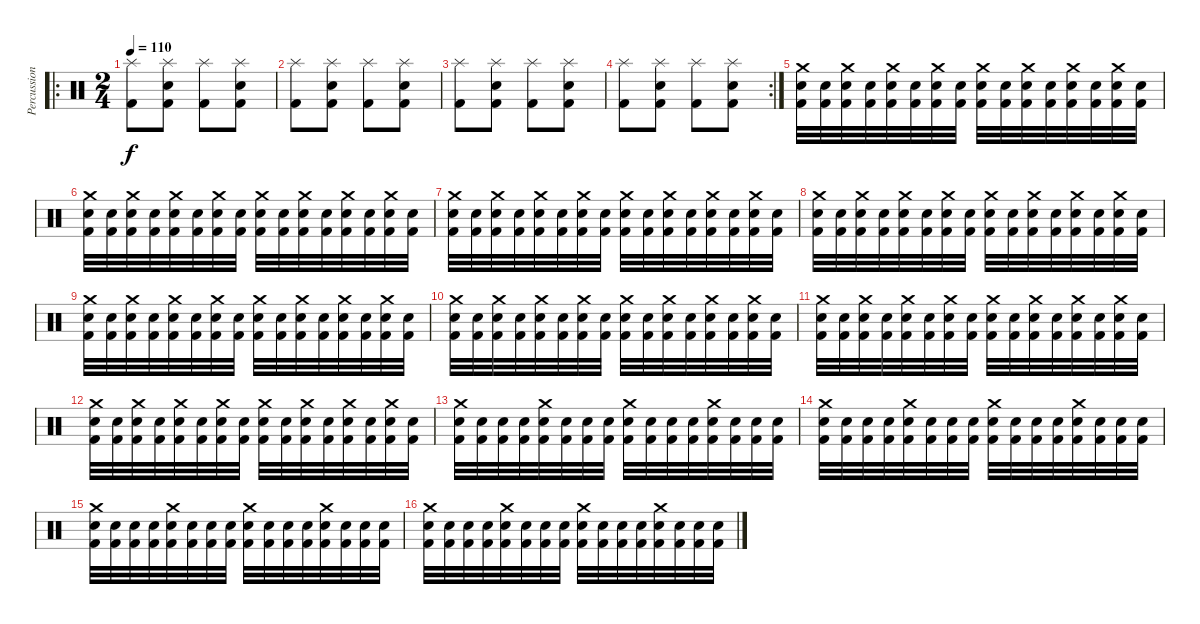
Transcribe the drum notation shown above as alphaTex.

\track ("Percussion" "Percussion") {instrument percussion}
\staff {score}
\articulation defaults
\ro
\ts (2 4)
\tempo 110
\clef neutral
\ks c
("Splash (hit)" "Kick (hit) 2").8{dy f} ("Splash (hit)" "Snare (hit) 2" "Kick (hit) 2").8 ("Splash (hit)" "Kick (hit) 2").8 ("Splash (hit)" "Snare (hit) 2" "Kick (hit) 2").8 |
("Splash (hit)" "Kick (hit) 2").8 ("Splash (hit)" "Snare (hit) 2" "Kick (hit) 2").8 ("Splash (hit)" "Kick (hit) 2").8 ("Splash (hit)" "Snare (hit) 2" "Kick (hit) 2").8 |
("Splash (hit)" "Kick (hit) 2").8 ("Splash (hit)" "Snare (hit) 2" "Kick (hit) 2").8 ("Splash (hit)" "Kick (hit) 2").8 ("Splash (hit)" "Snare (hit) 2" "Kick (hit) 2").8 |
\rc 2
("Splash (hit)" "Kick (hit) 2").8 ("Splash (hit)" "Snare (hit) 2" "Kick (hit) 2").8 ("Splash (hit)" "Kick (hit) 2").8 ("Splash (hit)" "Snare (hit) 2" "Kick (hit) 2").8 |
("Snare (hit) 2" "Crash medium (hit)" "Kick (hit) 2").32 ("Snare (hit) 2" "Kick (hit) 2").32 ("Snare (hit) 2" "Crash medium (hit)" "Kick (hit) 2").32 ("Snare (hit) 2" "Kick (hit) 2").32 ("Snare (hit) 2" "Crash medium (hit)" "Kick (hit) 2").32 ("Snare (hit) 2" "Kick (hit) 2").32 ("Snare (hit) 2" "Crash medium (hit)" "Kick (hit) 2").32 ("Snare (hit) 2" "Kick (hit) 2").32 ("Snare (hit) 2" "Crash medium (hit)" "Kick (hit) 2").32 ("Snare (hit) 2" "Kick (hit) 2").32 ("Snare (hit) 2" "Crash medium (hit)" "Kick (hit) 2").32 ("Snare (hit) 2" "Kick (hit) 2").32 ("Snare (hit) 2" "Crash medium (hit)" "Kick (hit) 2").32 ("Snare (hit) 2" "Kick (hit) 2").32 ("Snare (hit) 2" "Crash medium (hit)" "Kick (hit) 2").32 ("Snare (hit) 2" "Kick (hit) 2").32 |
("Snare (hit) 2" "Crash medium (hit)" "Kick (hit) 2").32 ("Snare (hit) 2" "Kick (hit) 2").32 ("Snare (hit) 2" "Crash medium (hit)" "Kick (hit) 2").32 ("Snare (hit) 2" "Kick (hit) 2").32 ("Snare (hit) 2" "Crash medium (hit)" "Kick (hit) 2").32 ("Snare (hit) 2" "Kick (hit) 2").32 ("Snare (hit) 2" "Crash medium (hit)" "Kick (hit) 2").32 ("Snare (hit) 2" "Kick (hit) 2").32 ("Snare (hit) 2" "Crash medium (hit)" "Kick (hit) 2").32 ("Snare (hit) 2" "Kick (hit) 2").32 ("Snare (hit) 2" "Crash medium (hit)" "Kick (hit) 2").32 ("Snare (hit) 2" "Kick (hit) 2").32 ("Snare (hit) 2" "Crash medium (hit)" "Kick (hit) 2").32 ("Snare (hit) 2" "Kick (hit) 2").32 ("Snare (hit) 2" "Crash medium (hit)" "Kick (hit) 2").32 ("Snare (hit) 2" "Kick (hit) 2").32 |
("Snare (hit) 2" "Crash medium (hit)" "Kick (hit) 2").32 ("Snare (hit) 2" "Kick (hit) 2").32 ("Snare (hit) 2" "Crash medium (hit)" "Kick (hit) 2").32 ("Snare (hit) 2" "Kick (hit) 2").32 ("Snare (hit) 2" "Crash medium (hit)" "Kick (hit) 2").32 ("Snare (hit) 2" "Kick (hit) 2").32 ("Snare (hit) 2" "Crash medium (hit)" "Kick (hit) 2").32 ("Snare (hit) 2" "Kick (hit) 2").32 ("Snare (hit) 2" "Crash medium (hit)" "Kick (hit) 2").32 ("Snare (hit) 2" "Kick (hit) 2").32 ("Snare (hit) 2" "Crash medium (hit)" "Kick (hit) 2").32 ("Snare (hit) 2" "Kick (hit) 2").32 ("Snare (hit) 2" "Crash medium (hit)" "Kick (hit) 2").32 ("Snare (hit) 2" "Kick (hit) 2").32 ("Snare (hit) 2" "Crash medium (hit)" "Kick (hit) 2").32 ("Snare (hit) 2" "Kick (hit) 2").32 |
("Snare (hit) 2" "Crash medium (hit)" "Kick (hit) 2").32 ("Snare (hit) 2" "Kick (hit) 2").32 ("Snare (hit) 2" "Crash medium (hit)" "Kick (hit) 2").32 ("Snare (hit) 2" "Kick (hit) 2").32 ("Snare (hit) 2" "Crash medium (hit)" "Kick (hit) 2").32 ("Snare (hit) 2" "Kick (hit) 2").32 ("Snare (hit) 2" "Crash medium (hit)" "Kick (hit) 2").32 ("Snare (hit) 2" "Kick (hit) 2").32 ("Snare (hit) 2" "Crash medium (hit)" "Kick (hit) 2").32 ("Snare (hit) 2" "Kick (hit) 2").32 ("Snare (hit) 2" "Crash medium (hit)" "Kick (hit) 2").32 ("Snare (hit) 2" "Kick (hit) 2").32 ("Snare (hit) 2" "Crash medium (hit)" "Kick (hit) 2").32 ("Snare (hit) 2" "Kick (hit) 2").32 ("Snare (hit) 2" "Crash medium (hit)" "Kick (hit) 2").32 ("Snare (hit) 2" "Kick (hit) 2").32 |
("Snare (hit) 2" "Crash medium (hit)" "Kick (hit) 2").32 ("Snare (hit) 2" "Kick (hit) 2").32 ("Snare (hit) 2" "Crash medium (hit)" "Kick (hit) 2").32 ("Snare (hit) 2" "Kick (hit) 2").32 ("Snare (hit) 2" "Crash medium (hit)" "Kick (hit) 2").32 ("Snare (hit) 2" "Kick (hit) 2").32 ("Snare (hit) 2" "Crash medium (hit)" "Kick (hit) 2").32 ("Snare (hit) 2" "Kick (hit) 2").32 ("Snare (hit) 2" "Crash medium (hit)" "Kick (hit) 2").32 ("Snare (hit) 2" "Kick (hit) 2").32 ("Snare (hit) 2" "Crash medium (hit)" "Kick (hit) 2").32 ("Snare (hit) 2" "Kick (hit) 2").32 ("Snare (hit) 2" "Crash medium (hit)" "Kick (hit) 2").32 ("Snare (hit) 2" "Kick (hit) 2").32 ("Snare (hit) 2" "Crash medium (hit)" "Kick (hit) 2").32 ("Snare (hit) 2" "Kick (hit) 2").32 |
("Snare (hit) 2" "Crash medium (hit)" "Kick (hit) 2").32 ("Snare (hit) 2" "Kick (hit) 2").32 ("Snare (hit) 2" "Crash medium (hit)" "Kick (hit) 2").32 ("Snare (hit) 2" "Kick (hit) 2").32 ("Snare (hit) 2" "Crash medium (hit)" "Kick (hit) 2").32 ("Snare (hit) 2" "Kick (hit) 2").32 ("Snare (hit) 2" "Crash medium (hit)" "Kick (hit) 2").32 ("Snare (hit) 2" "Kick (hit) 2").32 ("Snare (hit) 2" "Crash medium (hit)" "Kick (hit) 2").32 ("Snare (hit) 2" "Kick (hit) 2").32 ("Snare (hit) 2" "Crash medium (hit)" "Kick (hit) 2").32 ("Snare (hit) 2" "Kick (hit) 2").32 ("Snare (hit) 2" "Crash medium (hit)" "Kick (hit) 2").32 ("Snare (hit) 2" "Kick (hit) 2").32 ("Snare (hit) 2" "Crash medium (hit)" "Kick (hit) 2").32 ("Snare (hit) 2" "Kick (hit) 2").32 |
("Snare (hit) 2" "Crash medium (hit)" "Kick (hit) 2").32 ("Snare (hit) 2" "Kick (hit) 2").32 ("Snare (hit) 2" "Crash medium (hit)" "Kick (hit) 2").32 ("Snare (hit) 2" "Kick (hit) 2").32 ("Snare (hit) 2" "Crash medium (hit)" "Kick (hit) 2").32 ("Snare (hit) 2" "Kick (hit) 2").32 ("Snare (hit) 2" "Crash medium (hit)" "Kick (hit) 2").32 ("Snare (hit) 2" "Kick (hit) 2").32 ("Snare (hit) 2" "Crash medium (hit)" "Kick (hit) 2").32 ("Snare (hit) 2" "Kick (hit) 2").32 ("Snare (hit) 2" "Crash medium (hit)" "Kick (hit) 2").32 ("Snare (hit) 2" "Kick (hit) 2").32 ("Snare (hit) 2" "Crash medium (hit)" "Kick (hit) 2").32 ("Snare (hit) 2" "Kick (hit) 2").32 ("Snare (hit) 2" "Crash medium (hit)" "Kick (hit) 2").32 ("Snare (hit) 2" "Kick (hit) 2").32 |
("Snare (hit) 2" "Crash medium (hit)" "Kick (hit) 2").32 ("Snare (hit) 2" "Kick (hit) 2").32 ("Snare (hit) 2" "Crash medium (hit)" "Kick (hit) 2").32 ("Snare (hit) 2" "Kick (hit) 2").32 ("Snare (hit) 2" "Crash medium (hit)" "Kick (hit) 2").32 ("Snare (hit) 2" "Kick (hit) 2").32 ("Snare (hit) 2" "Crash medium (hit)" "Kick (hit) 2").32 ("Snare (hit) 2" "Kick (hit) 2").32 ("Snare (hit) 2" "Crash medium (hit)" "Kick (hit) 2").32 ("Snare (hit) 2" "Kick (hit) 2").32 ("Snare (hit) 2" "Crash medium (hit)" "Kick (hit) 2").32 ("Snare (hit) 2" "Kick (hit) 2").32 ("Snare (hit) 2" "Crash medium (hit)" "Kick (hit) 2").32 ("Snare (hit) 2" "Kick (hit) 2").32 ("Snare (hit) 2" "Crash medium (hit)" "Kick (hit) 2").32 ("Snare (hit) 2" "Kick (hit) 2").32 |
("Snare (hit) 2" "Crash medium (hit)" "Kick (hit) 2").32 ("Snare (hit) 2" "Kick (hit) 2").32 ("Snare (hit) 2" "Kick (hit) 2").32 ("Snare (hit) 2" "Kick (hit) 2").32 ("Snare (hit) 2" "Crash medium (hit)" "Kick (hit) 2").32 ("Snare (hit) 2" "Kick (hit) 2").32 ("Snare (hit) 2" "Kick (hit) 2").32 ("Snare (hit) 2" "Kick (hit) 2").32 ("Snare (hit) 2" "Crash medium (hit)" "Kick (hit) 2").32 ("Snare (hit) 2" "Kick (hit) 2").32 ("Snare (hit) 2" "Kick (hit) 2").32 ("Snare (hit) 2" "Kick (hit) 2").32 ("Snare (hit) 2" "Crash medium (hit)" "Kick (hit) 2").32 ("Snare (hit) 2" "Kick (hit) 2").32 ("Snare (hit) 2" "Kick (hit) 2").32 ("Snare (hit) 2" "Kick (hit) 2").32 |
("Snare (hit) 2" "Crash medium (hit)" "Kick (hit) 2").32 ("Snare (hit) 2" "Kick (hit) 2").32 ("Snare (hit) 2" "Kick (hit) 2").32 ("Snare (hit) 2" "Kick (hit) 2").32 ("Snare (hit) 2" "Crash medium (hit)" "Kick (hit) 2").32 ("Snare (hit) 2" "Kick (hit) 2").32 ("Snare (hit) 2" "Kick (hit) 2").32 ("Snare (hit) 2" "Kick (hit) 2").32 ("Snare (hit) 2" "Crash medium (hit)" "Kick (hit) 2").32 ("Snare (hit) 2" "Kick (hit) 2").32 ("Snare (hit) 2" "Kick (hit) 2").32 ("Snare (hit) 2" "Kick (hit) 2").32 ("Snare (hit) 2" "Crash medium (hit)" "Kick (hit) 2").32 ("Snare (hit) 2" "Kick (hit) 2").32 ("Snare (hit) 2" "Kick (hit) 2").32 ("Snare (hit) 2" "Kick (hit) 2").32 |
("Snare (hit) 2" "Crash medium (hit)" "Kick (hit) 2").32 ("Snare (hit) 2" "Kick (hit) 2").32 ("Snare (hit) 2" "Kick (hit) 2").32 ("Snare (hit) 2" "Kick (hit) 2").32 ("Snare (hit) 2" "Crash medium (hit)" "Kick (hit) 2").32 ("Snare (hit) 2" "Kick (hit) 2").32 ("Snare (hit) 2" "Kick (hit) 2").32 ("Snare (hit) 2" "Kick (hit) 2").32 ("Snare (hit) 2" "Crash medium (hit)" "Kick (hit) 2").32 ("Snare (hit) 2" "Kick (hit) 2").32 ("Snare (hit) 2" "Kick (hit) 2").32 ("Snare (hit) 2" "Kick (hit) 2").32 ("Snare (hit) 2" "Crash medium (hit)" "Kick (hit) 2").32 ("Snare (hit) 2" "Kick (hit) 2").32 ("Snare (hit) 2" "Kick (hit) 2").32 ("Snare (hit) 2" "Kick (hit) 2").32 |
("Snare (hit) 2" "Crash medium (hit)" "Kick (hit) 2").32 ("Snare (hit) 2" "Kick (hit) 2").32 ("Snare (hit) 2" "Kick (hit) 2").32 ("Snare (hit) 2" "Kick (hit) 2").32 ("Snare (hit) 2" "Crash medium (hit)" "Kick (hit) 2").32 ("Snare (hit) 2" "Kick (hit) 2").32 ("Snare (hit) 2" "Kick (hit) 2").32 ("Snare (hit) 2" "Kick (hit) 2").32 ("Snare (hit) 2" "Crash medium (hit)" "Kick (hit) 2").32 ("Snare (hit) 2" "Kick (hit) 2").32 ("Snare (hit) 2" "Kick (hit) 2").32 ("Snare (hit) 2" "Kick (hit) 2").32 ("Snare (hit) 2" "Crash medium (hit)" "Kick (hit) 2").32 ("Snare (hit) 2" "Kick (hit) 2").32 ("Snare (hit) 2" "Kick (hit) 2").32 ("Snare (hit) 2" "Kick (hit) 2").32
